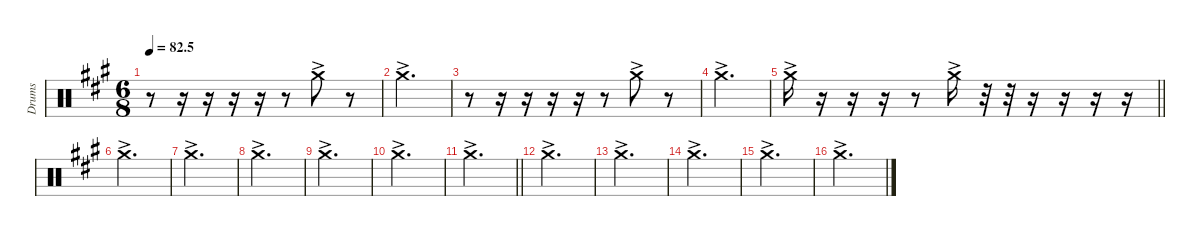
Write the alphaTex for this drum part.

\defaultSystemsLayout 4
\hideDynamics
\bracketExtendMode nobrackets
\otherSystemsTrackNameOrientation horizontal
\track ("Right crash" "Drums") {instrument percussion}
\staff {score}
\articulation defaults
\ts (6 8)
\tempo
82.5
\accidentals auto
\clef neutral
\ottava regular
\simile none
\scale
0.333333
\ks a
r.8{dy f} r.16 r.16 r.16 r.16 r.8 "Crash medium (hit)"{ac acc forcenatural}.8 r.8 |
\scale
0.333333 "Crash medium (hit)"{ac acc forcenatural}.2{d} |
\scale
0.333333 r.8 r.16 r.16 r.16 r.16 r.8 "Crash medium (hit)"{ac acc forcenatural}.8 r.8 |
\scale
0.333333 "Crash medium (hit)"{ac acc forcenatural}.2{d} |
\scale
0.333333
\barLineRight lightlight "Crash medium (hit)"{ac acc forcenatural}.16
r.16 r.16 r.16 r.8 "Crash medium (hit)"{ac acc forcenatural}.16 r.32 r.32 r.16 r.16 r.16 r.16 |
\scale
0.333333 "Crash medium (hit)"{ac acc forcenatural}.2{d} |
\scale
0.333333 "Crash medium (hit)"{ac acc forcenatural}.2{d} |
\scale
0.333333 "Crash medium (hit)"{ac acc forcenatural}.2{d} |
\scale
0.333333 "Crash medium (hit)"{ac acc forcenatural}.2{d} |
\scale
0.333333 "Crash medium (hit)"{ac acc forcenatural}.2{d} |
\scale
0.333333
\barLineRight lightlight "Crash medium (hit)"{ac acc forcenatural}.2{d}
|
\scale
0.333333 "Crash medium (hit)"{ac acc forcenatural}.2{d} |
\scale
0.333333 "Crash medium (hit)"{ac acc forcenatural}.2{d} |
\scale
0.333333 "Crash medium (hit)"{ac acc forcenatural}.2{d} |
\scale
0.333333 "Crash medium (hit)"{ac acc forcenatural}.2{d} |
\scale
0.333333 "Crash medium (hit)"{ac acc forcenatural}.2{d}
